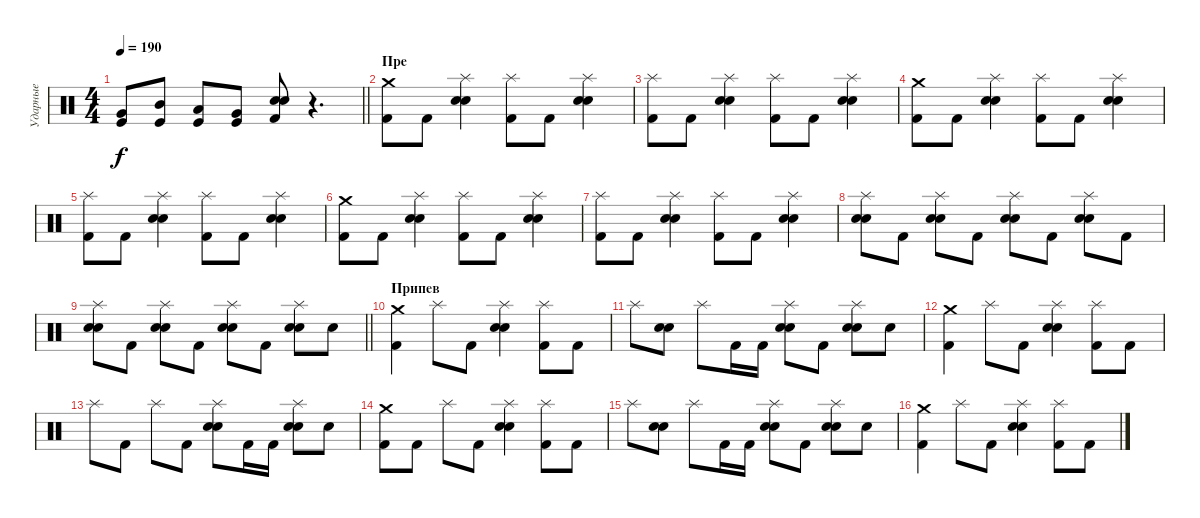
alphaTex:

\track ("Ударные" "Ударные") {instrument percussion}
\staff {score}
\articulation defaults
\ts (4 4)
\tempo 190
\clef neutral
\barLineRight lightlight
\ks c
("Very Low Tom (hit)" "Kick (hit)").8{dy f} ("Mid Tom (hit)" "Kick (hit)").8 ("Low Tom (hit)" "Kick (hit)").8 ("Very Low Tom (hit)" "Kick (hit)").8 ("Electric Snare (hit)" "Snare (hit) 2" "Kick (hit) 2").8 r.4{d} |
\section ("" "Пре")
("Crash medium (hit)" "Kick (hit) 2").8 "Kick (hit) 2".8 ("Splash (hit)" "Electric Snare (hit)" "Snare (hit) 2").4 ("Splash (hit)" "Kick (hit) 2").8 "Kick (hit) 2".8 ("Splash (hit)" "Electric Snare (hit)" "Snare (hit) 2").4 |
("Splash (hit)" "Kick (hit) 2").8 "Kick (hit) 2".8 ("Splash (hit)" "Electric Snare (hit)" "Snare (hit) 2").4 ("Splash (hit)" "Kick (hit) 2").8 "Kick (hit) 2".8 ("Splash (hit)" "Electric Snare (hit)" "Snare (hit) 2").4 |
("Crash medium (hit)" "Kick (hit) 2").8 "Kick (hit) 2".8 ("Splash (hit)" "Electric Snare (hit)" "Snare (hit) 2").4 ("Splash (hit)" "Kick (hit) 2").8 "Kick (hit) 2".8 ("Splash (hit)" "Electric Snare (hit)" "Snare (hit) 2").4 |
("Splash (hit)" "Kick (hit) 2").8 "Kick (hit) 2".8 ("Splash (hit)" "Electric Snare (hit)" "Snare (hit) 2").4 ("Splash (hit)" "Kick (hit) 2").8 "Kick (hit) 2".8 ("Splash (hit)" "Electric Snare (hit)" "Snare (hit) 2").4 |
("Crash medium (hit)" "Kick (hit) 2").8 "Kick (hit) 2".8 ("Splash (hit)" "Electric Snare (hit)" "Snare (hit) 2").4 ("Splash (hit)" "Kick (hit) 2").8 "Kick (hit) 2".8 ("Splash (hit)" "Electric Snare (hit)" "Snare (hit) 2").4 |
("Splash (hit)" "Kick (hit) 2").8 "Kick (hit) 2".8 ("Splash (hit)" "Electric Snare (hit)" "Snare (hit) 2").4 ("Splash (hit)" "Kick (hit) 2").8 "Kick (hit) 2".8 ("Splash (hit)" "Electric Snare (hit)" "Snare (hit) 2").4 |
("Splash (hit)" "Electric Snare (hit)" "Snare (hit) 2").8 "Kick (hit) 2".8 ("Splash (hit)" "Electric Snare (hit)" "Snare (hit) 2").8 "Kick (hit) 2".8 ("Splash (hit)" "Electric Snare (hit)" "Snare (hit) 2").8 "Kick (hit) 2".8 ("Splash (hit)" "Electric Snare (hit)" "Snare (hit) 2").8 "Kick (hit) 2".8 |
\barLineRight lightlight
("Splash (hit)" "Electric Snare (hit)" "Snare (hit) 2").8 "Kick (hit) 2".8 ("Splash (hit)" "Electric Snare (hit)" "Snare (hit) 2").8 "Kick (hit) 2".8 ("Splash (hit)" "Electric Snare (hit)" "Snare (hit) 2").8 "Kick (hit) 2".8 ("Splash (hit)" "Electric Snare (hit)" "Snare (hit) 2").8 "Electric Snare (hit)".8 |
\section ("" "Припев")
("Crash medium (hit)" "Kick (hit) 2").4 "Splash (hit)".8 "Kick (hit) 2".8 ("Splash (hit)" "Electric Snare (hit)" "Snare (hit) 2").4 ("Splash (hit)" "Kick (hit) 2").8 "Kick (hit) 2".8 |
"Splash (hit)".8 ("Electric Snare (hit)" "Snare (hit) 2").8 "Splash (hit)".8 "Kick (hit) 2".16 "Kick (hit) 2".16 ("Splash (hit)" "Electric Snare (hit)" "Snare (hit) 2").8 "Kick (hit) 2".8 ("Splash (hit)" "Electric Snare (hit)" "Snare (hit) 2").8 "Electric Snare (hit)".8 |
("Crash medium (hit)" "Kick (hit) 2").4 "Splash (hit)".8 "Kick (hit) 2".8 ("Splash (hit)" "Electric Snare (hit)" "Snare (hit) 2").4 ("Splash (hit)" "Kick (hit) 2").8 "Kick (hit) 2".8 |
"Splash (hit)".8 "Kick (hit) 2".8 "Splash (hit)".8 "Kick (hit) 2".8 ("Splash (hit)" "Electric Snare (hit)" "Snare (hit) 2").8 "Kick (hit) 2".16 "Kick (hit) 2".16 ("Splash (hit)" "Electric Snare (hit)" "Snare (hit) 2").8 "Electric Snare (hit)".8 |
("Crash medium (hit)" "Kick (hit) 2").8 "Kick (hit) 2".8 "Splash (hit)".8 "Kick (hit) 2".8 ("Splash (hit)" "Electric Snare (hit)" "Snare (hit) 2").4 ("Splash (hit)" "Kick (hit) 2").8 "Kick (hit) 2".8 |
"Splash (hit)".8 ("Electric Snare (hit)" "Snare (hit) 2").8 "Splash (hit)".8 "Kick (hit) 2".16 "Kick (hit) 2".16 ("Splash (hit)" "Electric Snare (hit)" "Snare (hit) 2").8 "Kick (hit) 2".8 ("Splash (hit)" "Electric Snare (hit)" "Snare (hit) 2").8 "Electric Snare (hit)".8 |
("Crash medium (hit)" "Kick (hit) 2").4 "Splash (hit)".8 "Kick (hit) 2".8 ("Splash (hit)" "Electric Snare (hit)" "Snare (hit) 2").4 ("Splash (hit)" "Kick (hit) 2").8 "Kick (hit) 2".8
